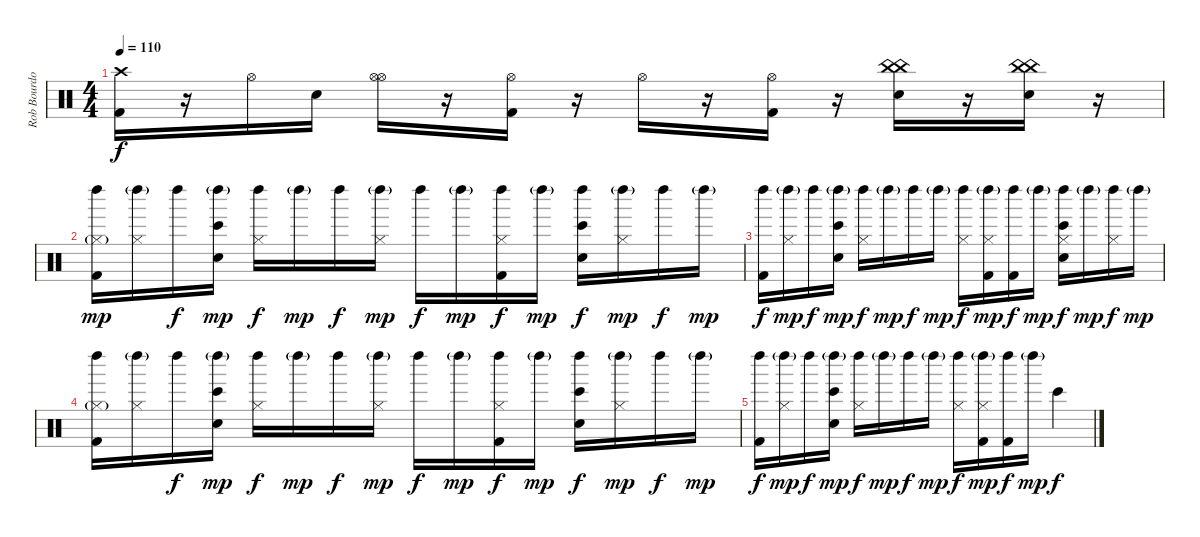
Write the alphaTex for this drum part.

\track ("Rob Bourdon (Drums)" "Rob Bourdo") {instrument percussion}
\staff {score}
\articulation defaults
\ts (4 4)
\tempo 110
\clef neutral
\ks c
("Crash high (hit)" "Kick (hit) 2").16{dy f} r.16 "Hi-Hat (open)".16 "Electric Snare (hit)".16 ("Hi-Hat (open)" "Hi-Hat (open)").16 r.16 ("Hi-Hat (open)" "Kick (hit) 2").16 r.16 "Hi-Hat (open)".16 r.16 ("Hi-Hat (open)" "Kick (hit) 2").16 r.16 ("China (hit)" "China (hit)" "Electric Snare (hit)").16 r.16 ("China (hit)" "China (hit)" "Electric Snare (hit)").16 r.16 |
("Hi-Hat (closed)"{g} "Left Maraca (hit)" "Kick (hit) 2").16{dy mp} ("Hi-Hat (closed)" "Left Maraca (hit)"{g}).16 "Left Maraca (hit)".16{dy f} ("Left Maraca (hit)"{g} "Electric Snare (hit)" "Bongo High (hit)").16{dy mp} ("Hi-Hat (closed)" "Left Maraca (hit)").16{dy f} "Left Maraca (hit)"{g}.16{dy mp} "Left Maraca (hit)".16{dy f} ("Hi-Hat (closed)" "Left Maraca (hit)"{g}).16{dy mp} "Left Maraca (hit)".16{dy f} "Left Maraca (hit)"{g}.16{dy mp} ("Hi-Hat (closed)" "Left Maraca (hit)" "Kick (hit) 2").16{dy f} "Left Maraca (hit)"{g}.16{dy mp} ("Left Maraca (hit)" "Electric Snare (hit)" "Bongo High (hit)").16{dy f} ("Hi-Hat (closed)" "Left Maraca (hit)"{g}).16{dy mp} "Left Maraca (hit)".16{dy f} "Left Maraca (hit)"{g}.16{dy mp} |
("Left Maraca (hit)" "Kick (hit) 2").16{dy f} ("Hi-Hat (closed)" "Left Maraca (hit)"{g}).16{dy mp} "Left Maraca (hit)".16{dy f} ("Left Maraca (hit)"{g} "Electric Snare (hit)" "Bongo High (hit)").16{dy mp} ("Hi-Hat (closed)" "Left Maraca (hit)").16{dy f} "Left Maraca (hit)"{g}.16{dy mp} "Left Maraca (hit)".16{dy f} "Left Maraca (hit)"{g}.16{dy mp} ("Hi-Hat (closed)" "Left Maraca (hit)").16{dy f} ("Hi-Hat (closed)" "Left Maraca (hit)"{g} "Kick (hit) 2").16{dy mp} ("Left Maraca (hit)" "Kick (hit) 2").16{dy f} "Left Maraca (hit)"{g}.16{dy mp} ("Hi-Hat (closed)" "Left Maraca (hit)" "Electric Snare (hit)" "Bongo High (hit)").16{dy f} "Left Maraca (hit)"{g}.16{dy mp} ("Hi-Hat (closed)" "Left Maraca (hit)").16{dy f} "Left Maraca (hit)"{g}.16{dy mp} |
("Hi-Hat (closed)"{g} "Left Maraca (hit)" "Kick (hit) 2").16 ("Hi-Hat (closed)" "Left Maraca (hit)"{g}).16 "Left Maraca (hit)".16{dy f} ("Left Maraca (hit)"{g} "Electric Snare (hit)" "Bongo High (hit)").16{dy mp} ("Hi-Hat (closed)" "Left Maraca (hit)").16{dy f} "Left Maraca (hit)"{g}.16{dy mp} "Left Maraca (hit)".16{dy f} ("Hi-Hat (closed)" "Left Maraca (hit)"{g}).16{dy mp} "Left Maraca (hit)".16{dy f} "Left Maraca (hit)"{g}.16{dy mp} ("Hi-Hat (closed)" "Left Maraca (hit)" "Kick (hit) 2").16{dy f} "Left Maraca (hit)"{g}.16{dy mp} ("Left Maraca (hit)" "Electric Snare (hit)" "Bongo High (hit)").16{dy f} ("Hi-Hat (closed)" "Left Maraca (hit)"{g}).16{dy mp} "Left Maraca (hit)".16{dy f} "Left Maraca (hit)"{g}.16{dy mp} |
("Left Maraca (hit)" "Kick (hit) 2").16{dy f} ("Hi-Hat (closed)" "Left Maraca (hit)"{g}).16{dy mp} "Left Maraca (hit)".16{dy f} ("Left Maraca (hit)"{g} "Electric Snare (hit)" "Bongo High (hit)").16{dy mp} ("Hi-Hat (closed)" "Left Maraca (hit)").16{dy f} "Left Maraca (hit)"{g}.16{dy mp} "Left Maraca (hit)".16{dy f} "Left Maraca (hit)"{g}.16{dy mp} ("Hi-Hat (closed)" "Left Maraca (hit)").16{dy f} ("Hi-Hat (closed)" "Left Maraca (hit)"{g} "Kick (hit) 2").16{dy mp} ("Left Maraca (hit)" "Kick (hit) 2").16{dy f} "Left Maraca (hit)"{g}.16{dy mp} "Bongo High (hit)".4{dy f}
